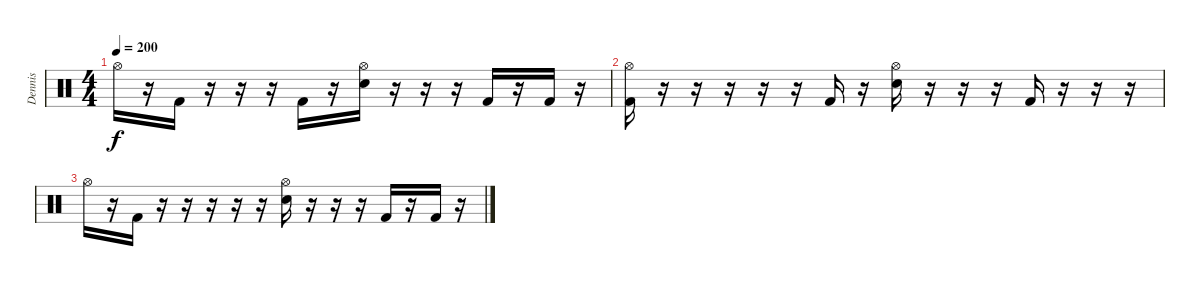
\track ("Dennis" "Dennis") {instrument percussion}
\staff {score}
\articulation defaults
\ts (4 4)
\tempo 200
\clef neutral
\ks c "Hi-Hat (open)".16{dy f beam merge}
r.16 "Kick (hit) 2".16 r.16 r.16{beam merge} r.16 "Kick (hit) 2".16{beam merge} r.16{beam merge} ("Hi-Hat (open)" "Electric Snare (hit)").16 r.16 r.16 r.16{beam merge} "Kick (hit) 2".16 r.16 "Kick (hit) 2".16 r.16 |
("Hi-Hat (open)" "Kick (hit) 2").16 r.16{beam merge} r.16{beam merge} r.16 r.16{beam merge} r.16{beam merge} "Kick (hit) 2".16 r.16 ("Hi-Hat (open)" "Electric Snare (hit)").16 r.16{beam merge} r.16 r.16 "Kick (hit) 2".16 r.16 r.16 r.16 |
"Hi-Hat (open)".16{beam merge} r.16 "Kick (hit) 2".16 r.16 r.16{beam merge} r.16 r.16{beam merge} r.16{beam merge} ("Hi-Hat (open)" "Electric Snare (hit)").16 r.16 r.16 r.16{beam merge} "Kick (hit) 2".16 r.16 "Kick (hit) 2".16 r.16
